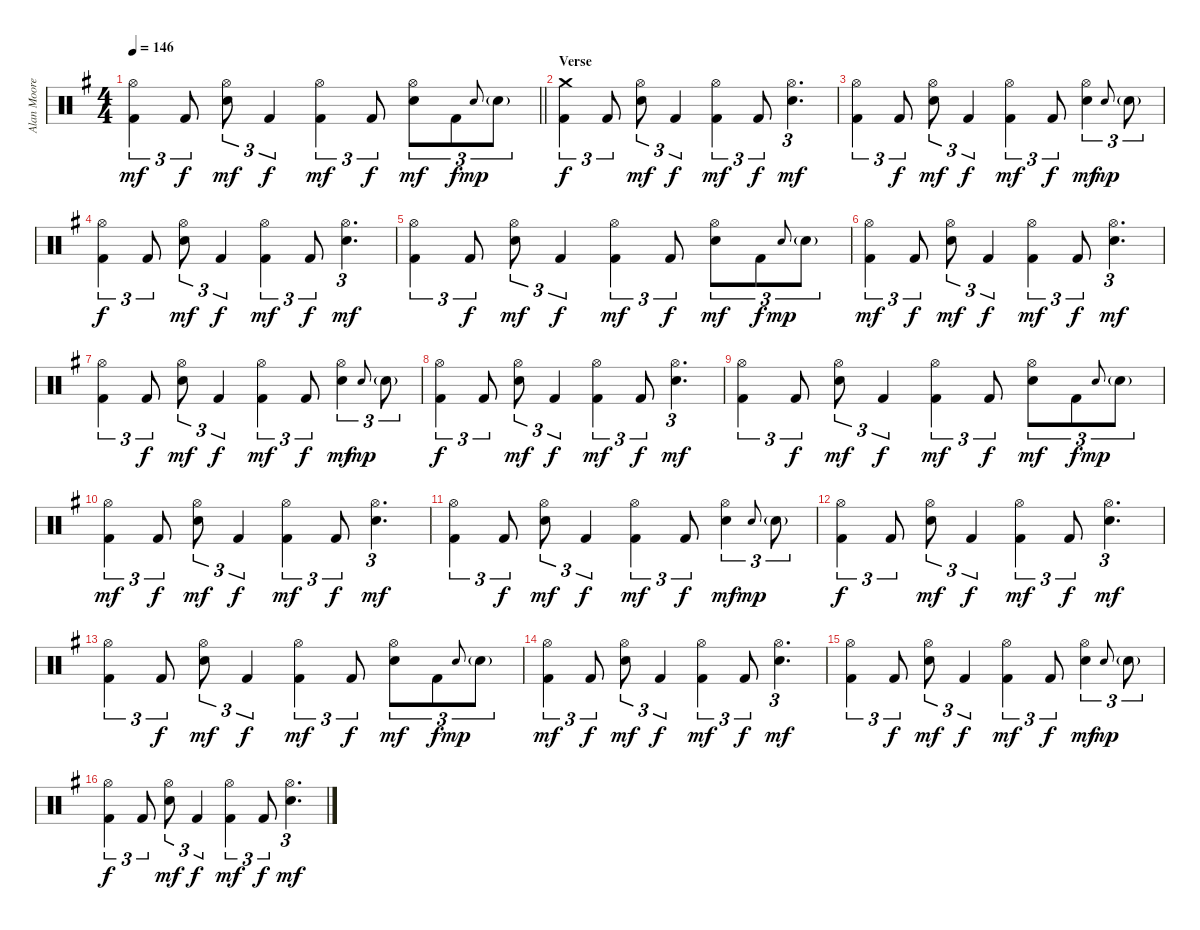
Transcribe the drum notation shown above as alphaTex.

\track ("Alan Moore" "Alan Moore") {instrument percussion}
\staff {score}
\articulation defaults
\ts (4 4)
\tempo 146
\clef neutral
\barLineRight lightlight
\ks eminor
("Hi-Hat (open)" "Kick (hit) 2").4{tu (3 2) dy mf} "Kick (hit) 2".8{tu (3 2) dy f} ("Hi-Hat (open)" "Electric Snare (hit)").8{tu (3 2) dy mf} "Kick (hit) 2".4{tu (3 2) dy f} ("Hi-Hat (open)" "Kick (hit) 2").4{tu (3 2) dy mf} "Kick (hit) 2".8{tu (3 2) dy f} ("Hi-Hat (open)" "Electric Snare (hit)").8{tu (3 2) dy mf} "Kick (hit) 2".8{tu (3 2) dy f} "Electric Snare (hit)".8{gr onbeat dy mp} "Electric Snare (hit)"{g}.8{tu (3 2)} |
\section ("" "Verse")
("Crash medium (hit)" "Kick (hit) 2").4{tu (3 2) dy f} "Kick (hit) 2".8{tu (3 2)} ("Hi-Hat (open)" "Electric Snare (hit)").8{tu (3 2) dy mf} "Kick (hit) 2".4{tu (3 2) dy f} ("Hi-Hat (open)" "Kick (hit) 2").4{tu (3 2) dy mf} "Kick (hit) 2".8{tu (3 2) dy f} ("Hi-Hat (open)" "Electric Snare (hit)").4{d tu (3 2) dy mf} |
("Hi-Hat (open)" "Kick (hit) 2").4{tu (3 2)} "Kick (hit) 2".8{tu (3 2) dy f} ("Hi-Hat (open)" "Electric Snare (hit)").8{tu (3 2) dy mf} "Kick (hit) 2".4{tu (3 2) dy f} ("Hi-Hat (open)" "Kick (hit) 2").4{tu (3 2) dy mf} "Kick (hit) 2".8{tu (3 2) dy f} ("Hi-Hat (open)" "Electric Snare (hit)").4{tu (3 2) dy mf} "Electric Snare (hit)".8{gr onbeat dy mp} "Electric Snare (hit)"{g}.8{tu (3 2)} |
("Hi-Hat (open)" "Kick (hit) 2").4{tu (3 2) dy f} "Kick (hit) 2".8{tu (3 2)} ("Hi-Hat (open)" "Electric Snare (hit)").8{tu (3 2) dy mf} "Kick (hit) 2".4{tu (3 2) dy f} ("Hi-Hat (open)" "Kick (hit) 2").4{tu (3 2) dy mf} "Kick (hit) 2".8{tu (3 2) dy f} ("Hi-Hat (open)" "Electric Snare (hit)").4{d tu (3 2) dy mf} |
("Hi-Hat (open)" "Kick (hit) 2").4{tu (3 2)} "Kick (hit) 2".8{tu (3 2) dy f} ("Hi-Hat (open)" "Electric Snare (hit)").8{tu (3 2) dy mf} "Kick (hit) 2".4{tu (3 2) dy f} ("Hi-Hat (open)" "Kick (hit) 2").4{tu (3 2) dy mf} "Kick (hit) 2".8{tu (3 2) dy f} ("Hi-Hat (open)" "Electric Snare (hit)").8{tu (3 2) dy mf} "Kick (hit) 2".8{tu (3 2) dy f} "Electric Snare (hit)".8{gr onbeat dy mp} "Electric Snare (hit)"{g}.8{tu (3 2)} |
("Hi-Hat (open)" "Kick (hit) 2").4{tu (3 2) dy mf} "Kick (hit) 2".8{tu (3 2) dy f} ("Hi-Hat (open)" "Electric Snare (hit)").8{tu (3 2) dy mf} "Kick (hit) 2".4{tu (3 2) dy f} ("Hi-Hat (open)" "Kick (hit) 2").4{tu (3 2) dy mf} "Kick (hit) 2".8{tu (3 2) dy f} ("Hi-Hat (open)" "Electric Snare (hit)").4{d tu (3 2) dy mf} |
("Hi-Hat (open)" "Kick (hit) 2").4{tu (3 2)} "Kick (hit) 2".8{tu (3 2) dy f} ("Hi-Hat (open)" "Electric Snare (hit)").8{tu (3 2) dy mf} "Kick (hit) 2".4{tu (3 2) dy f} ("Hi-Hat (open)" "Kick (hit) 2").4{tu (3 2) dy mf} "Kick (hit) 2".8{tu (3 2) dy f} ("Hi-Hat (open)" "Electric Snare (hit)").4{tu (3 2) dy mf} "Electric Snare (hit)".8{gr onbeat dy mp} "Electric Snare (hit)"{g}.8{tu (3 2)} |
("Hi-Hat (open)" "Kick (hit) 2").4{tu (3 2) dy f} "Kick (hit) 2".8{tu (3 2)} ("Hi-Hat (open)" "Electric Snare (hit)").8{tu (3 2) dy mf} "Kick (hit) 2".4{tu (3 2) dy f} ("Hi-Hat (open)" "Kick (hit) 2").4{tu (3 2) dy mf} "Kick (hit) 2".8{tu (3 2) dy f} ("Hi-Hat (open)" "Electric Snare (hit)").4{d tu (3 2) dy mf} |
("Hi-Hat (open)" "Kick (hit) 2").4{tu (3 2)} "Kick (hit) 2".8{tu (3 2) dy f} ("Hi-Hat (open)" "Electric Snare (hit)").8{tu (3 2) dy mf} "Kick (hit) 2".4{tu (3 2) dy f} ("Hi-Hat (open)" "Kick (hit) 2").4{tu (3 2) dy mf} "Kick (hit) 2".8{tu (3 2) dy f} ("Hi-Hat (open)" "Electric Snare (hit)").8{tu (3 2) dy mf} "Kick (hit) 2".8{tu (3 2) dy f} "Electric Snare (hit)".8{gr onbeat dy mp} "Electric Snare (hit)"{g}.8{tu (3 2)} |
("Hi-Hat (open)" "Kick (hit) 2").4{tu (3 2) dy mf} "Kick (hit) 2".8{tu (3 2) dy f} ("Hi-Hat (open)" "Electric Snare (hit)").8{tu (3 2) dy mf} "Kick (hit) 2".4{tu (3 2) dy f} ("Hi-Hat (open)" "Kick (hit) 2").4{tu (3 2) dy mf} "Kick (hit) 2".8{tu (3 2) dy f} ("Hi-Hat (open)" "Electric Snare (hit)").4{d tu (3 2) dy mf} |
("Hi-Hat (open)" "Kick (hit) 2").4{tu (3 2)} "Kick (hit) 2".8{tu (3 2) dy f} ("Hi-Hat (open)" "Electric Snare (hit)").8{tu (3 2) dy mf} "Kick (hit) 2".4{tu (3 2) dy f} ("Hi-Hat (open)" "Kick (hit) 2").4{tu (3 2) dy mf} "Kick (hit) 2".8{tu (3 2) dy f} ("Hi-Hat (open)" "Electric Snare (hit)").4{tu (3 2) dy mf} "Electric Snare (hit)".8{gr onbeat dy mp} "Electric Snare (hit)"{g}.8{tu (3 2)} |
("Hi-Hat (open)" "Kick (hit) 2").4{tu (3 2) dy f} "Kick (hit) 2".8{tu (3 2)} ("Hi-Hat (open)" "Electric Snare (hit)").8{tu (3 2) dy mf} "Kick (hit) 2".4{tu (3 2) dy f} ("Hi-Hat (open)" "Kick (hit) 2").4{tu (3 2) dy mf} "Kick (hit) 2".8{tu (3 2) dy f} ("Hi-Hat (open)" "Electric Snare (hit)").4{d tu (3 2) dy mf} |
("Hi-Hat (open)" "Kick (hit) 2").4{tu (3 2)} "Kick (hit) 2".8{tu (3 2) dy f} ("Hi-Hat (open)" "Electric Snare (hit)").8{tu (3 2) dy mf} "Kick (hit) 2".4{tu (3 2) dy f} ("Hi-Hat (open)" "Kick (hit) 2").4{tu (3 2) dy mf} "Kick (hit) 2".8{tu (3 2) dy f} ("Hi-Hat (open)" "Electric Snare (hit)").8{tu (3 2) dy mf} "Kick (hit) 2".8{tu (3 2) dy f} "Electric Snare (hit)".8{gr onbeat dy mp} "Electric Snare (hit)"{g}.8{tu (3 2)} |
("Hi-Hat (open)" "Kick (hit) 2").4{tu (3 2) dy mf} "Kick (hit) 2".8{tu (3 2) dy f} ("Hi-Hat (open)" "Electric Snare (hit)").8{tu (3 2) dy mf} "Kick (hit) 2".4{tu (3 2) dy f} ("Hi-Hat (open)" "Kick (hit) 2").4{tu (3 2) dy mf} "Kick (hit) 2".8{tu (3 2) dy f} ("Hi-Hat (open)" "Electric Snare (hit)").4{d tu (3 2) dy mf} |
("Hi-Hat (open)" "Kick (hit) 2").4{tu (3 2)} "Kick (hit) 2".8{tu (3 2) dy f} ("Hi-Hat (open)" "Electric Snare (hit)").8{tu (3 2) dy mf} "Kick (hit) 2".4{tu (3 2) dy f} ("Hi-Hat (open)" "Kick (hit) 2").4{tu (3 2) dy mf} "Kick (hit) 2".8{tu (3 2) dy f} ("Hi-Hat (open)" "Electric Snare (hit)").4{tu (3 2) dy mf} "Electric Snare (hit)".8{gr onbeat dy mp} "Electric Snare (hit)"{g}.8{tu (3 2)} |
("Hi-Hat (open)" "Kick (hit) 2").4{tu (3 2) dy f} "Kick (hit) 2".8{tu (3 2)} ("Hi-Hat (open)" "Electric Snare (hit)").8{tu (3 2) dy mf} "Kick (hit) 2".4{tu (3 2) dy f} ("Hi-Hat (open)" "Kick (hit) 2").4{tu (3 2) dy mf} "Kick (hit) 2".8{tu (3 2) dy f} ("Hi-Hat (open)" "Electric Snare (hit)").4{d tu (3 2) dy mf}
